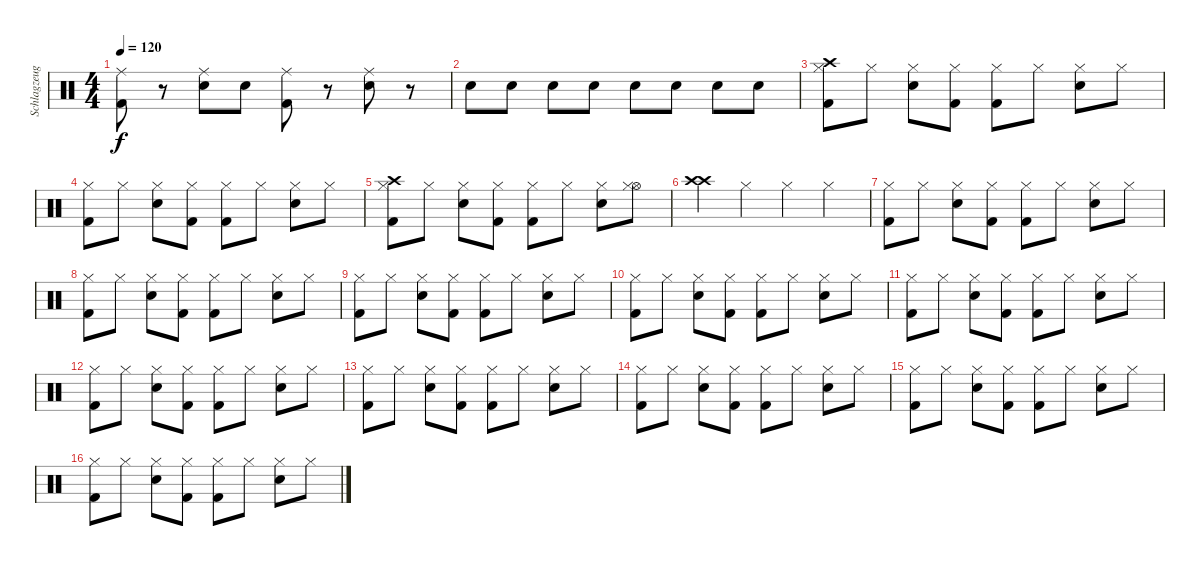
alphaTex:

\track ("Schlagzeug" "Schlagzeug") {instrument percussion}
\staff {score}
\articulation defaults
\ts (4 4)
\tempo 120
\clef neutral
\ks c
("Ride (middle)" "Kick (hit) 2").8{dy f} r.8 ("Ride (middle)" "Electric Snare (hit)").8 "Electric Snare (hit)".8 ("Ride (middle)" "Kick (hit) 2").8 r.8 ("Ride (middle)" "Electric Snare (hit)").8 r.8 |
"Electric Snare (hit)".8 "Electric Snare (hit)".8 "Electric Snare (hit)".8 "Electric Snare (hit)".8 "Electric Snare (hit)".8 "Electric Snare (hit)".8 "Electric Snare (hit)".8 "Electric Snare (hit)".8 |
("Crash high (hit)" "Hi-Hat (closed)" "Kick (hit) 2").8 "Hi-Hat (closed)".8 ("Hi-Hat (closed)" "Electric Snare (hit)").8 ("Hi-Hat (closed)" "Kick (hit) 2").8 ("Hi-Hat (closed)" "Kick (hit) 2").8 "Hi-Hat (closed)".8 ("Hi-Hat (closed)" "Electric Snare (hit)").8 "Hi-Hat (closed)".8 |
("Hi-Hat (closed)" "Kick (hit) 2").8 "Hi-Hat (closed)".8 ("Hi-Hat (closed)" "Electric Snare (hit)").8 ("Hi-Hat (closed)" "Kick (hit) 2").8 ("Hi-Hat (closed)" "Kick (hit) 2").8 "Hi-Hat (closed)".8 ("Hi-Hat (closed)" "Electric Snare (hit)").8 "Hi-Hat (closed)".8 |
("Crash high (hit)" "Hi-Hat (closed)" "Kick (hit) 2").8 "Hi-Hat (closed)".8 ("Hi-Hat (closed)" "Electric Snare (hit)").8 ("Hi-Hat (closed)" "Kick (hit) 2").8 ("Hi-Hat (closed)" "Kick (hit) 2").8 "Hi-Hat (closed)".8 ("Hi-Hat (closed)" "Electric Snare (hit)").8 ("Hi-Hat (open)" "Hi-Hat (closed)").8 |
("Crash high (hit)" "Crash high (hit)").4 "Hi-Hat (closed)".4 "Hi-Hat (closed)".4 "Hi-Hat (closed)".4 |
("Hi-Hat (closed)" "Kick (hit) 2").8 "Hi-Hat (closed)".8 ("Hi-Hat (closed)" "Electric Snare (hit)").8 ("Hi-Hat (closed)" "Kick (hit) 2").8 ("Hi-Hat (closed)" "Kick (hit) 2").8 "Hi-Hat (closed)".8 ("Hi-Hat (closed)" "Electric Snare (hit)").8 "Hi-Hat (closed)".8 |
("Hi-Hat (closed)" "Kick (hit) 2").8 "Hi-Hat (closed)".8 ("Hi-Hat (closed)" "Electric Snare (hit)").8 ("Hi-Hat (closed)" "Kick (hit) 2").8 ("Hi-Hat (closed)" "Kick (hit) 2").8 "Hi-Hat (closed)".8 ("Hi-Hat (closed)" "Electric Snare (hit)").8 "Hi-Hat (closed)".8 |
("Hi-Hat (closed)" "Kick (hit) 2").8 "Hi-Hat (closed)".8 ("Hi-Hat (closed)" "Electric Snare (hit)").8 ("Hi-Hat (closed)" "Kick (hit) 2").8 ("Hi-Hat (closed)" "Kick (hit) 2").8 "Hi-Hat (closed)".8 ("Hi-Hat (closed)" "Electric Snare (hit)").8 "Hi-Hat (closed)".8 |
("Hi-Hat (closed)" "Kick (hit) 2").8 "Hi-Hat (closed)".8 ("Hi-Hat (closed)" "Electric Snare (hit)").8 ("Hi-Hat (closed)" "Kick (hit) 2").8 ("Hi-Hat (closed)" "Kick (hit) 2").8 "Hi-Hat (closed)".8 ("Hi-Hat (closed)" "Electric Snare (hit)").8 "Hi-Hat (closed)".8 |
("Hi-Hat (closed)" "Kick (hit) 2").8 "Hi-Hat (closed)".8 ("Hi-Hat (closed)" "Electric Snare (hit)").8 ("Hi-Hat (closed)" "Kick (hit) 2").8 ("Hi-Hat (closed)" "Kick (hit) 2").8 "Hi-Hat (closed)".8 ("Hi-Hat (closed)" "Electric Snare (hit)").8 "Hi-Hat (closed)".8 |
("Hi-Hat (closed)" "Kick (hit) 2").8 "Hi-Hat (closed)".8 ("Hi-Hat (closed)" "Electric Snare (hit)").8 ("Hi-Hat (closed)" "Kick (hit) 2").8 ("Hi-Hat (closed)" "Kick (hit) 2").8 "Hi-Hat (closed)".8 ("Hi-Hat (closed)" "Electric Snare (hit)").8 "Hi-Hat (closed)".8 |
("Hi-Hat (closed)" "Kick (hit) 2").8 "Hi-Hat (closed)".8 ("Hi-Hat (closed)" "Electric Snare (hit)").8 ("Hi-Hat (closed)" "Kick (hit) 2").8 ("Hi-Hat (closed)" "Kick (hit) 2").8 "Hi-Hat (closed)".8 ("Hi-Hat (closed)" "Electric Snare (hit)").8 "Hi-Hat (closed)".8 |
("Hi-Hat (closed)" "Kick (hit) 2").8 "Hi-Hat (closed)".8 ("Hi-Hat (closed)" "Electric Snare (hit)").8 ("Hi-Hat (closed)" "Kick (hit) 2").8 ("Hi-Hat (closed)" "Kick (hit) 2").8 "Hi-Hat (closed)".8 ("Hi-Hat (closed)" "Electric Snare (hit)").8 "Hi-Hat (closed)".8 |
("Hi-Hat (closed)" "Kick (hit) 2").8 "Hi-Hat (closed)".8 ("Hi-Hat (closed)" "Electric Snare (hit)").8 ("Hi-Hat (closed)" "Kick (hit) 2").8 ("Hi-Hat (closed)" "Kick (hit) 2").8 "Hi-Hat (closed)".8 ("Hi-Hat (closed)" "Electric Snare (hit)").8 "Hi-Hat (closed)".8 |
("Hi-Hat (closed)" "Kick (hit) 2").8 "Hi-Hat (closed)".8 ("Hi-Hat (closed)" "Electric Snare (hit)").8 ("Hi-Hat (closed)" "Kick (hit) 2").8 ("Hi-Hat (closed)" "Kick (hit) 2").8 "Hi-Hat (closed)".8 ("Hi-Hat (closed)" "Electric Snare (hit)").8 "Hi-Hat (closed)".8
